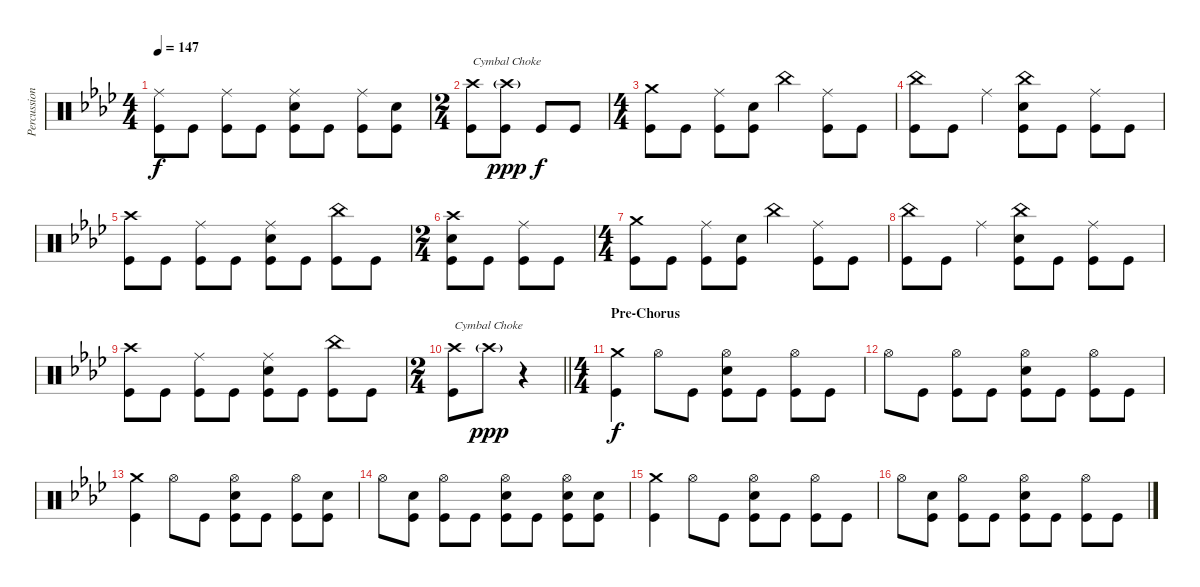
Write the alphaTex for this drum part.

\track ("Percussion" "Percussion") {instrument percussion}
\staff {score}
\articulation defaults
\ts (4 4)
\tempo 147
\clef neutral
\ks ab
("Ride (middle)" "Kick (hit)").8{dy f} "Kick (hit)".8 ("Ride (middle)" "Kick (hit)").8 "Kick (hit)".8 ("Ride (middle)" "Electric Snare (hit)" "Kick (hit)").8 "Kick (hit)".8 ("Ride (middle)" "Kick (hit)").8 ("Electric Snare (hit)" "Kick (hit)").8 |
\ts (2 4)
("Crash high (hit)" "Kick (hit)").8{txt "Cymbal Choke"} ("Crash high (hit)"{g} "Kick (hit)").8{dy ppp} "Kick (hit)".8{dy f} "Kick (hit)".8 |
\ts (4 4)
("Crash medium (hit)" "Kick (hit)").8 "Kick (hit)".8 ("Ride (middle)" "Kick (hit)").8 ("Electric Snare (hit)" "Kick (hit)").8 "China (hit)".4 ("Ride (middle)" "Kick (hit)").8 "Kick (hit)".8 |
("China (hit)" "Kick (hit)").8 "Kick (hit)".8 "Ride (middle)".4 ("China (hit)" "Electric Snare (hit)" "Kick (hit)").8 "Kick (hit)".8 ("Ride (middle)" "Kick (hit)").8 "Kick (hit)".8 |
("Crash high (hit)" "Kick (hit)").8 "Kick (hit)".8 ("Ride (middle)" "Kick (hit)").8 "Kick (hit)".8 ("Ride (middle)" "Electric Snare (hit)" "Kick (hit)").8 "Kick (hit)".8 ("China (hit)" "Kick (hit)").8 "Kick (hit)".8 |
\ts (2 4)
("Crash high (hit)" "Electric Snare (hit)" "Kick (hit)").8 "Kick (hit)".8 ("Ride (middle)" "Kick (hit)").8 "Kick (hit)".8 |
\ts (4 4)
("Crash medium (hit)" "Kick (hit)").8 "Kick (hit)".8 ("Ride (middle)" "Kick (hit)").8 ("Electric Snare (hit)" "Kick (hit)").8 "China (hit)".4 ("Ride (middle)" "Kick (hit)").8 "Kick (hit)".8 |
("China (hit)" "Kick (hit)").8 "Kick (hit)".8 "Ride (middle)".4 ("China (hit)" "Electric Snare (hit)" "Kick (hit)").8 "Kick (hit)".8 ("Ride (middle)" "Kick (hit)").8 "Kick (hit)".8 |
("Crash high (hit)" "Kick (hit)").8 "Kick (hit)".8 ("Ride (middle)" "Kick (hit)").8 "Kick (hit)".8 ("Ride (middle)" "Electric Snare (hit)" "Kick (hit)").8 "Kick (hit)".8 ("China (hit)" "Kick (hit)").8 "Kick (hit)".8 |
\ts (2 4)
\barLineRight lightlight
("Crash high (hit)" "Kick (hit)").8{txt "Cymbal Choke"} "Crash high (hit)"{g}.8{dy ppp} r.4 |
\ts (4 4)
\section ("" "Pre-Chorus")
("Crash medium (hit)" "Kick (hit)").4{dy f} "Hi-Hat (open)".8 "Kick (hit)".8 ("Hi-Hat (open)" "Electric Snare (hit)" "Kick (hit)").8 "Kick (hit)".8 ("Hi-Hat (open)" "Kick (hit)").8 "Kick (hit)".8 |
"Hi-Hat (open)".8 "Kick (hit)".8 ("Hi-Hat (open)" "Kick (hit)").8 "Kick (hit)".8 ("Hi-Hat (open)" "Electric Snare (hit)" "Kick (hit)").8 "Kick (hit)".8 ("Hi-Hat (open)" "Kick (hit)").8 "Kick (hit)".8 |
("Crash medium (hit)" "Kick (hit)").4 "Hi-Hat (open)".8 "Kick (hit)".8 ("Hi-Hat (open)" "Electric Snare (hit)" "Kick (hit)").8 "Kick (hit)".8 ("Hi-Hat (open)" "Kick (hit)").8 ("Electric Snare (hit)" "Kick (hit)").8 |
"Hi-Hat (open)".8 ("Electric Snare (hit)" "Kick (hit)").8 ("Hi-Hat (open)" "Kick (hit)").8 "Kick (hit)".8 ("Hi-Hat (open)" "Electric Snare (hit)" "Kick (hit)").8 "Kick (hit)".8 ("Hi-Hat (open)" "Electric Snare (hit)" "Kick (hit)").8 ("Electric Snare (hit)" "Kick (hit)").8 |
("Crash medium (hit)" "Kick (hit)").4 "Hi-Hat (open)".8 "Kick (hit)".8 ("Hi-Hat (open)" "Electric Snare (hit)" "Kick (hit)").8 "Kick (hit)".8 ("Hi-Hat (open)" "Kick (hit)").8 "Kick (hit)".8 |
"Hi-Hat (open)".8 ("Electric Snare (hit)" "Kick (hit)").8 ("Hi-Hat (open)" "Kick (hit)").8 "Kick (hit)".8 ("Hi-Hat (open)" "Electric Snare (hit)" "Kick (hit)").8 "Kick (hit)".8 ("Hi-Hat (open)" "Kick (hit)").8 "Kick (hit)".8
